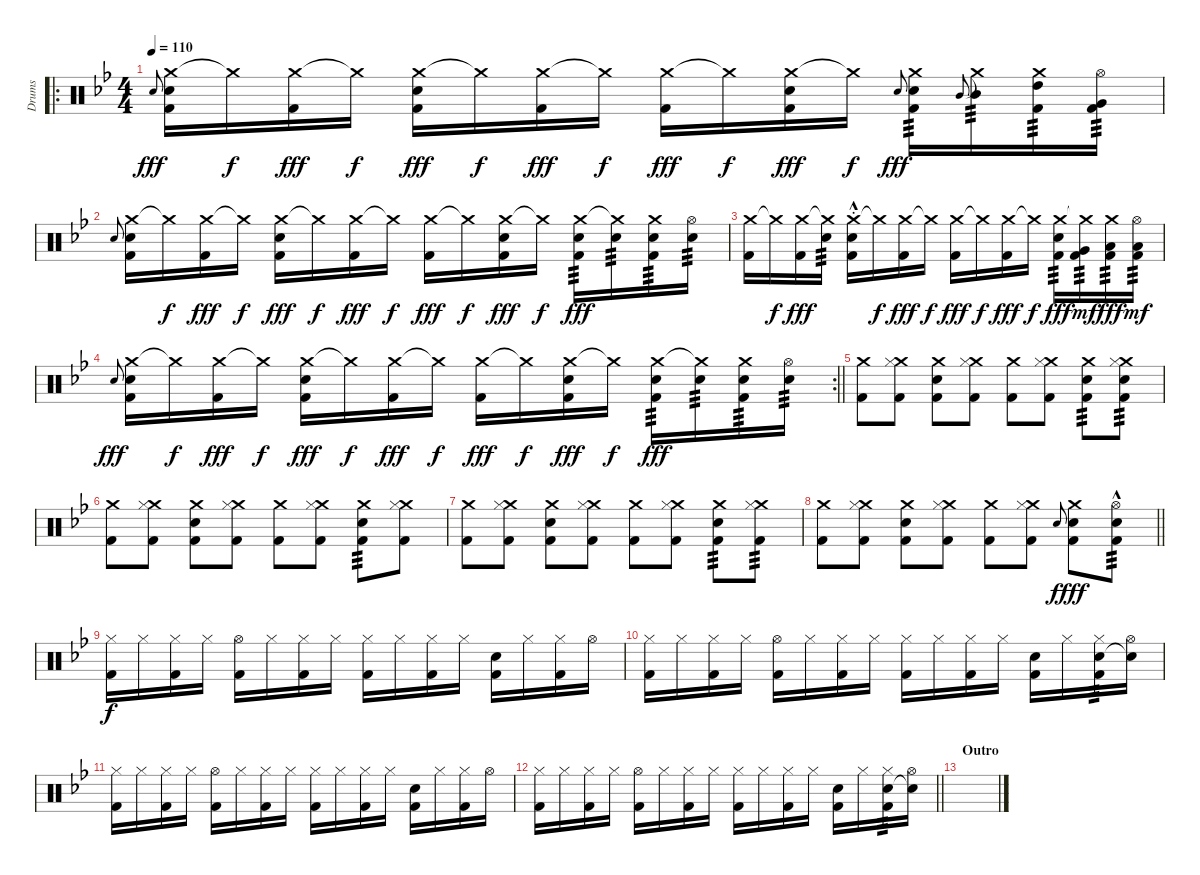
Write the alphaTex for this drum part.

\track ("Drums" "Drums") {instrument percussion}
\staff {score}
\articulation defaults
\ro
\ts (4 4)
\tempo 110
\clef neutral
\ks bb "Electric Snare (hit)"{h}.8{gr onbeat dy fff}
("Crash medium (hit)" "Electric Snare (hit)" "Kick (hit) 2").16 "Crash medium (hit)"{t}.16{dy f} ("Crash medium (hit)" "Kick (hit) 2").16{dy fff} "Crash medium (hit)"{t}.16{dy f} ("Crash medium (hit)" "Electric Snare (hit)" "Kick (hit) 2").16{dy fff} "Crash medium (hit)"{t}.16{dy f} ("Crash medium (hit)" "Kick (hit) 2").16{dy fff} "Crash medium (hit)"{t}.16{dy f} ("Crash medium (hit)" "Kick (hit) 2").16{dy fff} "Crash medium (hit)"{t}.16{dy f} ("Crash medium (hit)" "Electric Snare (hit)" "Kick (hit) 2").16{dy fff} "Crash medium (hit)"{t}.16{dy f} "Electric Snare (hit)"{h}.8{gr onbeat dy fff} ("Crash medium (hit)" "Electric Snare (hit)" "Kick (hit) 2").16{tp 3} "Mid Tom (hit)"{h}.8{gr onbeat} ("Crash medium (hit)"{t} "Mid Tom (hit)").16{tp 3} ("Crash medium (hit)" "High Tom (hit)" "Kick (hit) 2").16{tp 3} ("Hi-Hat (open)" "Very Low Tom (hit)" "Kick (hit) 2").16{tp 3} |
"Electric Snare (hit)"{h}.8{gr onbeat} ("Crash medium (hit)" "Electric Snare (hit)" "Kick (hit) 2").16 "Crash medium (hit)"{t}.16{dy f} ("Crash medium (hit)" "Kick (hit) 2").16{dy fff} "Crash medium (hit)"{t}.16{dy f} ("Crash medium (hit)" "Electric Snare (hit)" "Kick (hit) 2").16{dy fff} "Crash medium (hit)"{t}.16{dy f} ("Crash medium (hit)" "Kick (hit) 2").16{dy fff} "Crash medium (hit)"{t}.16{dy f} ("Crash medium (hit)" "Kick (hit) 2").16{dy fff} "Crash medium (hit)"{t}.16{dy f} ("Crash medium (hit)" "Electric Snare (hit)" "Kick (hit) 2").16{dy fff} "Crash medium (hit)"{t}.16{dy f} ("Crash medium (hit)" "Electric Snare (hit)" "Kick (hit) 2").16{tp 3 dy fff} ("Crash medium (hit)"{t} "Electric Snare (hit)").16{tp 3} ("Crash medium (hit)" "Electric Snare (hit)" "Kick (hit) 2").16{tp 3} ("Hi-Hat (open)" "Electric Snare (hit)").16{tp 3} |
("Crash medium (hit)" "Kick (hit) 2").16 "Crash medium (hit)"{t}.16{dy f} ("Crash medium (hit)" "Kick (hit) 2").16{dy fff} ("Crash medium (hit)"{t} "Electric Snare (hit)").16{tp 3} ("Crash medium (hit)" "Electric Snare (hit)"{hac st} "Kick (hit) 2").16 "Crash medium (hit)"{t}.16{dy f} ("Crash medium (hit)" "Kick (hit) 2").16{dy fff} "Crash medium (hit)"{t}.16{dy f} ("Crash medium (hit)" "Kick (hit) 2").16{dy fff} "Crash medium (hit)"{t}.16{dy f} ("Crash medium (hit)" "Kick (hit) 2").16{dy fff} "Crash medium (hit)"{t}.16{dy f} ("Crash medium (hit)" "Electric Snare (hit)" "Kick (hit) 2").16{tp 3 dy fff} ("Crash medium (hit)"{t} "Very Low Tom (hit)" "Kick (hit) 2").16{tp 3 dy mf} ("Crash medium (hit)" "Low Tom (hit)" "Kick (hit) 2").16{tp 3 dy fff} ("Hi-Hat (open)" "Low Floor Tom (hit)" "Kick (hit) 2").16{tp 3 dy mf} |
\rc 2
\barLineRight lightlight "Electric Snare (hit)"{h}.8{gr onbeat dy fff}
("Crash medium (hit)" "Electric Snare (hit)" "Kick (hit) 2").16 "Crash medium (hit)"{t}.16{dy f} ("Crash medium (hit)" "Kick (hit) 2").16{dy fff} "Crash medium (hit)"{t}.16{dy f} ("Crash medium (hit)" "Electric Snare (hit)" "Kick (hit) 2").16{dy fff} "Crash medium (hit)"{t}.16{dy f} ("Crash medium (hit)" "Kick (hit) 2").16{dy fff} "Crash medium (hit)"{t}.16{dy f} ("Crash medium (hit)" "Kick (hit) 2").16{dy fff} "Crash medium (hit)"{t}.16{dy f} ("Crash medium (hit)" "Electric Snare (hit)" "Kick (hit) 2").16{dy fff} "Crash medium (hit)"{t}.16{dy f} ("Crash medium (hit)" "Electric Snare (hit)" "Kick (hit) 2").16{tp 3 dy fff} ("Crash medium (hit)"{t} "Electric Snare (hit)").16{tp 3} ("Crash medium (hit)" "Electric Snare (hit)" "Kick (hit) 2").16{tp 3} ("Hi-Hat (open)" "Electric Snare (hit)").16{tp 3} |
("Crash medium (hit)" "Kick (hit) 2").8 ("Crash medium (hit)" "Hi-Hat (closed)" "Kick (hit) 2").8 ("Crash medium (hit)" "Electric Snare (hit)" "Kick (hit) 2").8 ("Crash medium (hit)" "Hi-Hat (closed)" "Kick (hit) 2").8 ("Crash medium (hit)" "Kick (hit) 2").8 ("Crash medium (hit)" "Hi-Hat (closed)" "Kick (hit) 2").8 ("Crash medium (hit)" "Electric Snare (hit)" "Kick (hit) 2").8{tp 3} ("Crash medium (hit)" "Hi-Hat (closed)" "Electric Snare (hit)" "Kick (hit) 2").8{tp 3} |
("Crash medium (hit)" "Kick (hit) 2").8 ("Crash medium (hit)" "Hi-Hat (closed)" "Kick (hit) 2").8 ("Crash medium (hit)" "Electric Snare (hit)" "Kick (hit) 2").8 ("Crash medium (hit)" "Hi-Hat (closed)" "Kick (hit) 2").8 ("Crash medium (hit)" "Kick (hit) 2").8 ("Crash medium (hit)" "Hi-Hat (closed)" "Kick (hit) 2").8 ("Crash medium (hit)" "Electric Snare (hit)" "Kick (hit) 2").8{tp 3} ("Crash medium (hit)" "Hi-Hat (closed)" "Kick (hit) 2").8 |
("Crash medium (hit)" "Kick (hit) 2").8 ("Crash medium (hit)" "Hi-Hat (closed)" "Kick (hit) 2").8 ("Crash medium (hit)" "Electric Snare (hit)" "Kick (hit) 2").8 ("Crash medium (hit)" "Hi-Hat (closed)" "Kick (hit) 2").8 ("Crash medium (hit)" "Kick (hit) 2").8 ("Crash medium (hit)" "Hi-Hat (closed)" "Kick (hit) 2").8 ("Crash medium (hit)" "Electric Snare (hit)" "Kick (hit) 2").8{tp 3} ("Crash medium (hit)" "Hi-Hat (closed)" "Kick (hit) 2").8{tp 3} |
\barLineRight lightlight
("Crash medium (hit)" "Kick (hit) 2").8 ("Crash medium (hit)" "Hi-Hat (closed)" "Kick (hit) 2").8 ("Crash medium (hit)" "Electric Snare (hit)" "Kick (hit) 2").8 ("Crash medium (hit)" "Hi-Hat (closed)" "Kick (hit) 2").8 ("Crash medium (hit)" "Kick (hit) 2").8 ("Crash medium (hit)" "Hi-Hat (closed)" "Kick (hit) 2").8 "Electric Snare (hit)"{h}.8{gr onbeat dy f} ("Crash medium (hit)" "Electric Snare (hit)" "Kick (hit) 2").8{dy fff} ("Hi-Hat (open)" "Electric Snare (hit)"{hac} "Kick (hit) 2").8{tp 3} |
("Hi-Hat (closed)" "Kick (hit) 2").16{dy f} "Hi-Hat (closed)".16 ("Hi-Hat (closed)" "Kick (hit) 2").16 "Hi-Hat (closed)".16 ("Hi-Hat (open)" "Kick (hit) 2").16 "Hi-Hat (closed)".16 ("Hi-Hat (closed)" "Kick (hit) 2").16 "Hi-Hat (closed)".16 ("Hi-Hat (closed)" "Kick (hit) 2").16 "Hi-Hat (closed)".16 ("Hi-Hat (closed)" "Kick (hit) 2").16 "Hi-Hat (closed)".16 ("Electric Snare (hit)" "Kick (hit) 2").16 "Hi-Hat (closed)".16 ("Hi-Hat (closed)" "Kick (hit) 2").16 "Hi-Hat (open)".16 |
("Hi-Hat (closed)" "Kick (hit) 2").16 "Hi-Hat (closed)".16 ("Hi-Hat (closed)" "Kick (hit) 2").16 "Hi-Hat (closed)".16 ("Hi-Hat (open)" "Kick (hit) 2").16 "Hi-Hat (closed)".16 ("Hi-Hat (closed)" "Kick (hit) 2").16 "Hi-Hat (closed)".16 ("Hi-Hat (closed)" "Kick (hit) 2").16 "Hi-Hat (closed)".16 ("Hi-Hat (closed)" "Kick (hit) 2").16 "Hi-Hat (closed)".16 ("Electric Snare (hit)" "Kick (hit) 2").16 "Hi-Hat (closed)".16 ("Hi-Hat (closed)" "Electric Snare (hit)" "Kick (hit) 2").16{tp 3} ("Hi-Hat (open)" "Electric Snare (hit)"{t}).16 |
("Hi-Hat (closed)" "Kick (hit) 2").16 "Hi-Hat (closed)".16 ("Hi-Hat (closed)" "Kick (hit) 2").16 "Hi-Hat (closed)".16 ("Hi-Hat (open)" "Kick (hit) 2").16 "Hi-Hat (closed)".16 ("Hi-Hat (closed)" "Kick (hit) 2").16 "Hi-Hat (closed)".16 ("Hi-Hat (closed)" "Kick (hit) 2").16 "Hi-Hat (closed)".16 ("Hi-Hat (closed)" "Kick (hit) 2").16 "Hi-Hat (closed)".16 ("Electric Snare (hit)" "Kick (hit) 2").16 "Hi-Hat (closed)".16 ("Hi-Hat (closed)" "Kick (hit) 2").16 "Hi-Hat (open)".16 |
\barLineRight lightlight
("Hi-Hat (closed)" "Kick (hit) 2").16 "Hi-Hat (closed)".16 ("Hi-Hat (closed)" "Kick (hit) 2").16 "Hi-Hat (closed)".16 ("Hi-Hat (open)" "Kick (hit) 2").16 "Hi-Hat (closed)".16 ("Hi-Hat (closed)" "Kick (hit) 2").16 "Hi-Hat (closed)".16 ("Hi-Hat (closed)" "Kick (hit) 2").16 "Hi-Hat (closed)".16 ("Hi-Hat (closed)" "Kick (hit) 2").16 "Hi-Hat (closed)".16 ("Electric Snare (hit)" "Kick (hit) 2").16 "Hi-Hat (closed)".16 ("Hi-Hat (closed)" "Electric Snare (hit)" "Kick (hit) 2").16{tp 3} ("Hi-Hat (open)" "Electric Snare (hit)"{t}).16 |
\section ("" "Outro")
